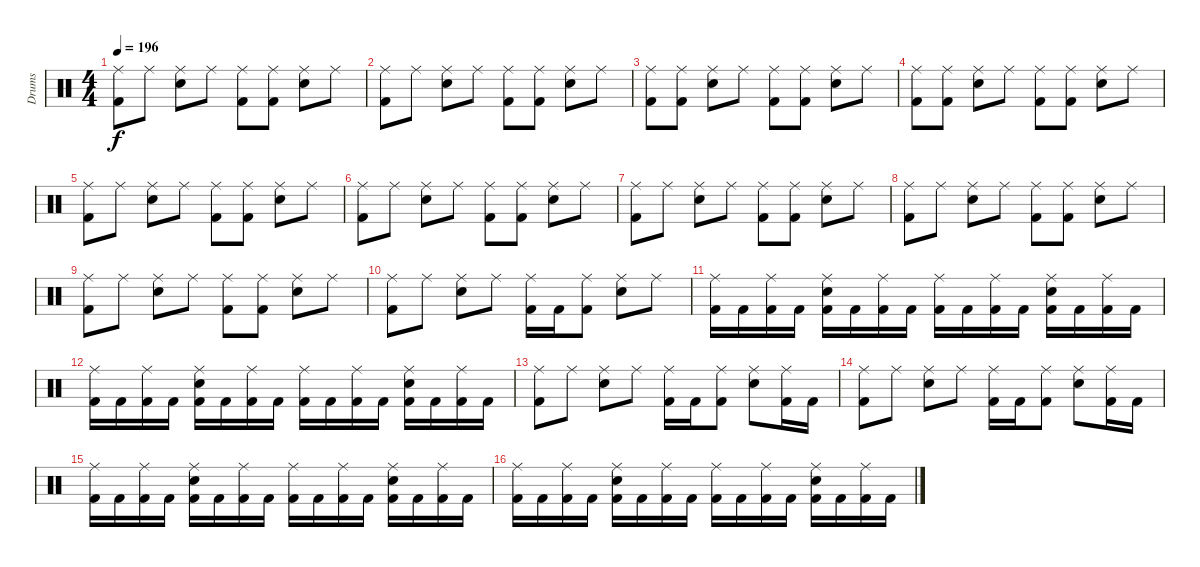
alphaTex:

\track ("Drums" "Drums") {instrument percussion}
\staff {score}
\articulation defaults
\ts (4 4)
\tempo 196
\clef neutral
\ks c
("Kick (hit) 2" "Ride (middle)").8{dy f} "Ride (middle)".8 ("Snare (hit) 2" "Ride (middle)").8 "Ride (middle)".8 ("Kick (hit) 2" "Ride (middle)").8 ("Kick (hit) 2" "Ride (middle)").8 ("Snare (hit) 2" "Ride (middle)").8 "Ride (middle)".8 |
("Kick (hit) 2" "Ride (middle)").8 "Ride (middle)".8 ("Snare (hit) 2" "Ride (middle)").8 "Ride (middle)".8 ("Kick (hit) 2" "Ride (middle)").8 ("Kick (hit) 2" "Ride (middle)").8 ("Snare (hit) 2" "Ride (middle)").8 "Ride (middle)".8 |
("Kick (hit) 2" "Ride (middle)").8 ("Kick (hit) 2" "Ride (middle)").8 ("Snare (hit) 2" "Ride (middle)").8 "Ride (middle)".8 ("Kick (hit) 2" "Ride (middle)").8 ("Kick (hit) 2" "Ride (middle)").8 ("Snare (hit) 2" "Ride (middle)").8 "Ride (middle)".8 |
("Kick (hit) 2" "Ride (middle)").8 ("Kick (hit) 2" "Ride (middle)").8 ("Snare (hit) 2" "Ride (middle)").8 "Ride (middle)".8 ("Kick (hit) 2" "Ride (middle)").8 ("Kick (hit) 2" "Ride (middle)").8 ("Snare (hit) 2" "Ride (middle)").8 "Ride (middle)".8 |
("Kick (hit) 2" "Ride (middle)").8 "Ride (middle)".8 ("Snare (hit) 2" "Ride (middle)").8 "Ride (middle)".8 ("Kick (hit) 2" "Ride (middle)").8 ("Kick (hit) 2" "Ride (middle)").8 ("Snare (hit) 2" "Ride (middle)").8 "Ride (middle)".8 |
("Kick (hit) 2" "Ride (middle)").8 "Ride (middle)".8 ("Snare (hit) 2" "Ride (middle)").8 "Ride (middle)".8 ("Kick (hit) 2" "Ride (middle)").8 ("Kick (hit) 2" "Ride (middle)").8 ("Snare (hit) 2" "Ride (middle)").8 "Ride (middle)".8 |
("Kick (hit) 2" "Ride (middle)").8 "Ride (middle)".8 ("Snare (hit) 2" "Ride (middle)").8 "Ride (middle)".8 ("Kick (hit) 2" "Ride (middle)").8 ("Kick (hit) 2" "Ride (middle)").8 ("Snare (hit) 2" "Ride (middle)").8 "Ride (middle)".8 |
("Kick (hit) 2" "Ride (middle)").8 "Ride (middle)".8 ("Snare (hit) 2" "Ride (middle)").8 "Ride (middle)".8 ("Kick (hit) 2" "Ride (middle)").8 ("Kick (hit) 2" "Ride (middle)").8 ("Snare (hit) 2" "Ride (middle)").8 "Ride (middle)".8 |
("Kick (hit) 2" "Ride (middle)").8 "Ride (middle)".8 ("Snare (hit) 2" "Ride (middle)").8 "Ride (middle)".8 ("Kick (hit) 2" "Ride (middle)").8 ("Kick (hit) 2" "Ride (middle)").8 ("Snare (hit) 2" "Ride (middle)").8 "Ride (middle)".8 |
("Kick (hit) 2" "Ride (middle)").8 "Ride (middle)".8 ("Snare (hit) 2" "Ride (middle)").8 "Ride (middle)".8 ("Kick (hit) 2" "Ride (middle)").16 "Kick (hit) 2".16 ("Kick (hit) 2" "Ride (middle)").8 ("Snare (hit) 2" "Ride (middle)").8 "Ride (middle)".8 |
("Kick (hit) 2" "Ride (middle)").16 "Kick (hit) 2".16 ("Kick (hit) 2" "Ride (middle)").16 "Kick (hit) 2".16 ("Kick (hit) 2" "Snare (hit) 2" "Ride (middle)").16 "Kick (hit) 2".16 ("Kick (hit) 2" "Ride (middle)").16 "Kick (hit) 2".16 ("Kick (hit) 2" "Ride (middle)").16 "Kick (hit) 2".16 ("Kick (hit) 2" "Ride (middle)").16 "Kick (hit) 2".16 ("Kick (hit) 2" "Snare (hit) 2" "Ride (middle)").16 "Kick (hit) 2".16 ("Kick (hit) 2" "Ride (middle)").16 "Kick (hit) 2".16 |
("Kick (hit) 2" "Ride (middle)").16 "Kick (hit) 2".16 ("Kick (hit) 2" "Ride (middle)").16 "Kick (hit) 2".16 ("Kick (hit) 2" "Snare (hit) 2" "Ride (middle)").16 "Kick (hit) 2".16 ("Kick (hit) 2" "Ride (middle)").16 "Kick (hit) 2".16 ("Kick (hit) 2" "Ride (middle)").16 "Kick (hit) 2".16 ("Kick (hit) 2" "Ride (middle)").16 "Kick (hit) 2".16 ("Kick (hit) 2" "Snare (hit) 2" "Ride (middle)").16 "Kick (hit) 2".16 ("Kick (hit) 2" "Ride (middle)").16 "Kick (hit) 2".16 |
("Kick (hit) 2" "Ride (middle)").8 "Ride (middle)".8 ("Snare (hit) 2" "Ride (middle)").8 "Ride (middle)".8 ("Kick (hit) 2" "Ride (middle)").16 "Kick (hit) 2".16 ("Kick (hit) 2" "Ride (middle)").8 ("Snare (hit) 2" "Ride (middle)").8 ("Kick (hit) 2" "Ride (middle)").16 "Kick (hit) 2".16 |
("Kick (hit) 2" "Ride (middle)").8 "Ride (middle)".8 ("Snare (hit) 2" "Ride (middle)").8 "Ride (middle)".8 ("Kick (hit) 2" "Ride (middle)").16 "Kick (hit) 2".16 ("Kick (hit) 2" "Ride (middle)").8 ("Snare (hit) 2" "Ride (middle)").8 ("Kick (hit) 2" "Ride (middle)").16 "Kick (hit) 2".16 |
("Kick (hit) 2" "Ride (middle)").16 "Kick (hit) 2".16 ("Kick (hit) 2" "Ride (middle)").16 "Kick (hit) 2".16 ("Kick (hit) 2" "Snare (hit) 2" "Ride (middle)").16 "Kick (hit) 2".16 ("Kick (hit) 2" "Ride (middle)").16 "Kick (hit) 2".16 ("Kick (hit) 2" "Ride (middle)").16 "Kick (hit) 2".16 ("Kick (hit) 2" "Ride (middle)").16 "Kick (hit) 2".16 ("Kick (hit) 2" "Snare (hit) 2" "Ride (middle)").16 "Kick (hit) 2".16 ("Kick (hit) 2" "Ride (middle)").16 "Kick (hit) 2".16 |
("Kick (hit) 2" "Ride (middle)").16 "Kick (hit) 2".16 ("Kick (hit) 2" "Ride (middle)").16 "Kick (hit) 2".16 ("Kick (hit) 2" "Snare (hit) 2" "Ride (middle)").16 "Kick (hit) 2".16 ("Kick (hit) 2" "Ride (middle)").16 "Kick (hit) 2".16 ("Kick (hit) 2" "Ride (middle)").16 "Kick (hit) 2".16 ("Kick (hit) 2" "Ride (middle)").16 "Kick (hit) 2".16 ("Kick (hit) 2" "Snare (hit) 2" "Ride (middle)").16 "Kick (hit) 2".16 ("Kick (hit) 2" "Ride (middle)").16 "Kick (hit) 2".16
